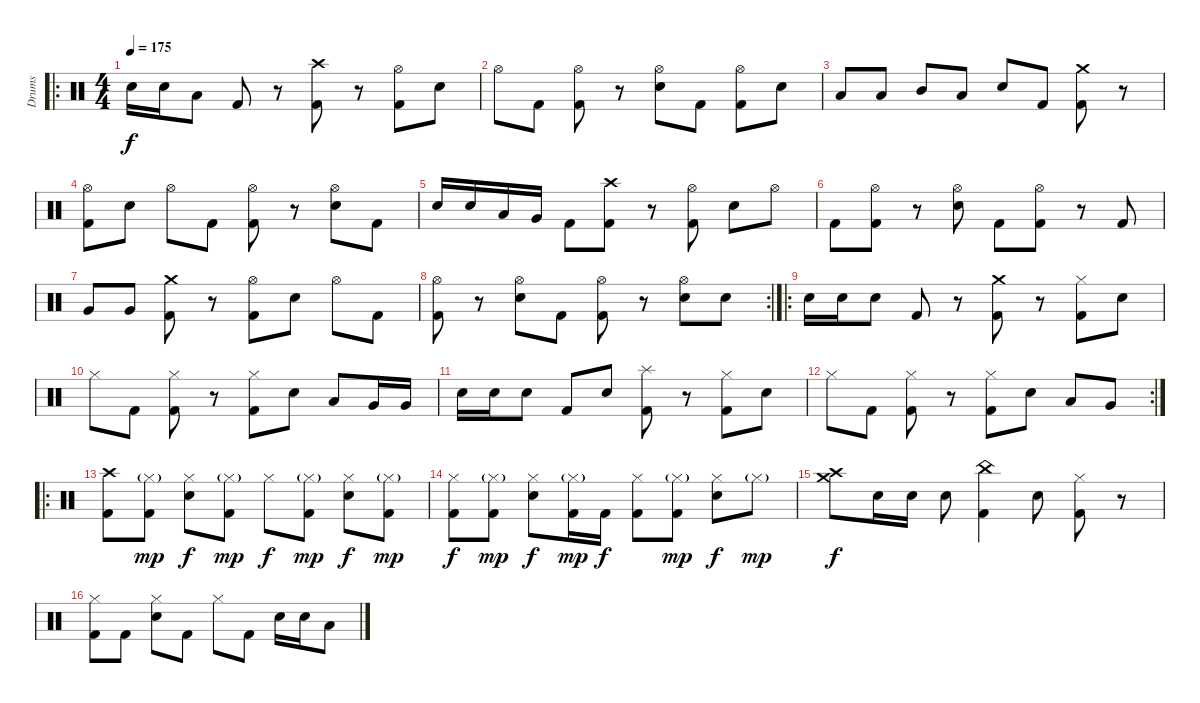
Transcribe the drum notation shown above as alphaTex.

\track ("Drums" "Drums") {instrument percussion}
\staff {score}
\articulation defaults
\ro
\ts (4 4)
\tempo 175
\clef neutral
\ks c "Electric Snare (hit)".16{dy f} "Electric Snare (hit)".16 "Low Tom (hit)".8 "Kick (hit) 2".8
r.8 ("Crash high (hit)" "Kick (hit) 2").8 r.8 ("Hi-Hat (open)" "Kick (hit) 2").8 "Electric Snare (hit)".8 |
"Hi-Hat (open)".8 "Kick (hit) 2".8 ("Hi-Hat (open)" "Kick (hit) 2").8 r.8 ("Hi-Hat (open)" "Electric Snare (hit)").8 "Kick (hit) 2".8 ("Hi-Hat (open)" "Kick (hit) 2").8 "Electric Snare (hit)".8 |
"Low Tom (hit)".8 "Low Tom (hit)".8 "Mid Tom (hit)".8 "Low Tom (hit)".8 "Electric Snare (hit)".8 "Kick (hit) 2".8 ("Crash medium (hit)" "Kick (hit) 2").8 r.8 |
("Hi-Hat (open)" "Kick (hit) 2").8 "Electric Snare (hit)".8 "Hi-Hat (open)".8 "Kick (hit) 2".8 ("Hi-Hat (open)" "Kick (hit) 2").8 r.8 ("Hi-Hat (open)" "Electric Snare (hit)").8 "Kick (hit) 2".8 |
"Electric Snare (hit)".16 "Electric Snare (hit)".16 "Low Tom (hit)".16 "Very Low Tom (hit)".16 "Kick (hit) 2".8 ("Crash high (hit)" "Kick (hit) 2").8 r.8 ("Hi-Hat (open)" "Kick (hit) 2").8 "Electric Snare (hit)".8 "Hi-Hat (open)".8 |
"Kick (hit) 2".8 ("Hi-Hat (open)" "Kick (hit) 2").8 r.8 ("Hi-Hat (open)" "Electric Snare (hit)").8 "Kick (hit) 2".8 ("Hi-Hat (open)" "Kick (hit) 2").8 r.8 "Kick (hit) 2".8 |
"Very Low Tom (hit)".8 "Very Low Tom (hit)".8 ("Crash medium (hit)" "Kick (hit) 2").8 r.8 ("Hi-Hat (open)" "Kick (hit) 2").8 "Electric Snare (hit)".8 "Hi-Hat (open)".8 "Kick (hit) 2".8 |
\rc 2
("Hi-Hat (open)" "Kick (hit) 2").8 r.8 ("Hi-Hat (open)" "Electric Snare (hit)").8 "Kick (hit) 2".8 ("Hi-Hat (open)" "Kick (hit) 2").8 r.8 ("Hi-Hat (open)" "Electric Snare (hit)").8 "Electric Snare (hit)".8 |
\ro "Electric Snare (hit)".16 "Electric Snare (hit)".16 "Electric Snare (hit)".8 "Kick (hit) 2".8
r.8 ("Crash medium (hit)" "Kick (hit) 2").8 r.8 ("Hi-Hat (closed)" "Kick (hit) 2").8 "Electric Snare (hit)".8 |
"Hi-Hat (closed)".8 "Kick (hit) 2".8 ("Hi-Hat (closed)" "Kick (hit) 2").8 r.8 ("Hi-Hat (closed)" "Kick (hit) 2").8 "Electric Snare (hit)".8 "Low Tom (hit)".8 "Very Low Tom (hit)".16 "Very Low Tom (hit)".16 |
"Electric Snare (hit)".16 "Electric Snare (hit)".16 "Electric Snare (hit)".8 "Kick (hit) 2".8 "Electric Snare (hit)".8 ("Splash (hit)" "Kick (hit) 2").8 r.8 ("Hi-Hat (closed)" "Kick (hit) 2").8 "Electric Snare (hit)".8 |
\rc 2 "Hi-Hat (closed)".8 "Kick (hit) 2".8
("Hi-Hat (closed)" "Kick (hit) 2").8 r.8 ("Hi-Hat (closed)" "Kick (hit) 2").8 "Electric Snare (hit)".8 "Low Tom (hit)".8 "Very Low Tom (hit)".8 |
\ro
("Crash high (hit)" "Kick (hit) 2").8 ("Hi-Hat (closed)"{g} "Kick (hit) 2").8{dy mp} ("Hi-Hat (closed)" "Electric Snare (hit)").8{dy f} ("Hi-Hat (closed)"{g} "Kick (hit) 2").8{dy mp} "Hi-Hat (closed)".8{dy f} ("Hi-Hat (closed)"{g} "Kick (hit) 2").8{dy mp} ("Hi-Hat (closed)" "Electric Snare (hit)").8{dy f} ("Hi-Hat (closed)"{g} "Kick (hit) 2").8{dy mp} |
("Hi-Hat (closed)" "Kick (hit) 2").8{dy f} ("Hi-Hat (closed)"{g} "Kick (hit) 2").8{dy mp} ("Hi-Hat (closed)" "Electric Snare (hit)").8{dy f} ("Hi-Hat (closed)"{g} "Kick (hit) 2").16{dy mp} "Kick (hit) 2".16{dy f} ("Hi-Hat (closed)" "Kick (hit) 2").8 ("Hi-Hat (closed)"{g} "Kick (hit) 2").8{dy mp} ("Hi-Hat (closed)" "Electric Snare (hit)").8{dy f} "Hi-Hat (closed)"{g}.8{dy mp} |
("Crash medium (hit)" "Crash high (hit)").8{dy f} "Electric Snare (hit)".16 "Electric Snare (hit)".16 "Electric Snare (hit)".8 ("China (hit)" "Kick (hit) 2").4 "Electric Snare (hit)".8 ("Hi-Hat (closed)" "Kick (hit) 2").8 r.8 |
("Hi-Hat (closed)" "Kick (hit) 2").8 "Kick (hit) 2".8 ("Hi-Hat (closed)" "Electric Snare (hit)").8 "Kick (hit) 2".8 "Hi-Hat (closed)".8 "Kick (hit) 2".8 "Electric Snare (hit)".16 "Electric Snare (hit)".16 "Low Tom (hit)".8
